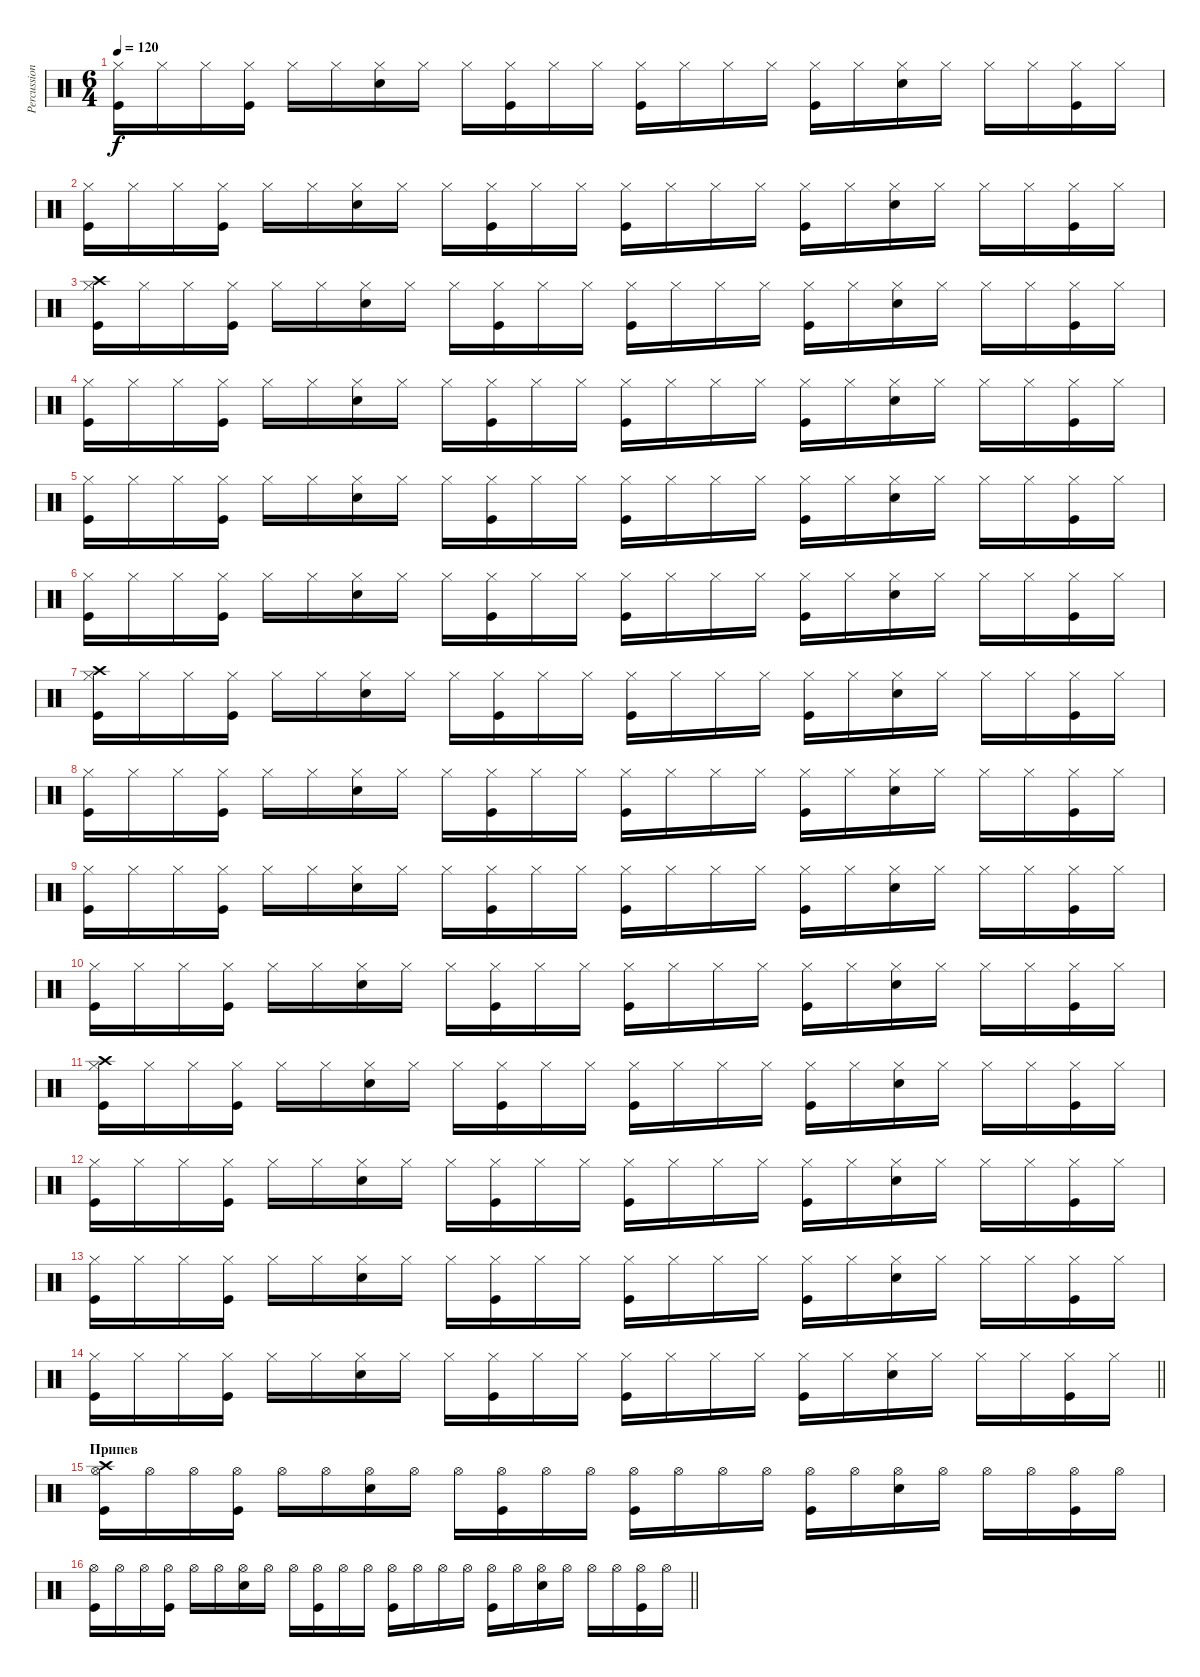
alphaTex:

\track ("Percussion" "Percussion") {instrument percussion}
\staff {score}
\articulation defaults
\ts (6 4)
\tempo 120
\clef neutral
\ks c
("Hi-Hat (closed)" "Kick (hit)").16{dy f} "Hi-Hat (closed)".16 "Hi-Hat (closed)".16 ("Hi-Hat (closed)" "Kick (hit)").16 "Hi-Hat (closed)".16 "Hi-Hat (closed)".16 ("Hi-Hat (closed)" "Snare (hit) 2").16 "Hi-Hat (closed)".16 "Hi-Hat (closed)".16 ("Hi-Hat (closed)" "Kick (hit)").16 "Hi-Hat (closed)".16 "Hi-Hat (closed)".16 ("Hi-Hat (closed)" "Kick (hit)").16 "Hi-Hat (closed)".16 "Hi-Hat (closed)".16 "Hi-Hat (closed)".16 ("Hi-Hat (closed)" "Kick (hit)").16 "Hi-Hat (closed)".16 ("Hi-Hat (closed)" "Snare (hit) 2").16 "Hi-Hat (closed)".16 "Hi-Hat (closed)".16 "Hi-Hat (closed)".16 ("Hi-Hat (closed)" "Kick (hit)").16 "Hi-Hat (closed)".16 |
("Hi-Hat (closed)" "Kick (hit)").16 "Hi-Hat (closed)".16 "Hi-Hat (closed)".16 ("Hi-Hat (closed)" "Kick (hit)").16 "Hi-Hat (closed)".16 "Hi-Hat (closed)".16 ("Hi-Hat (closed)" "Snare (hit) 2").16 "Hi-Hat (closed)".16 "Hi-Hat (closed)".16 ("Hi-Hat (closed)" "Kick (hit)").16 "Hi-Hat (closed)".16 "Hi-Hat (closed)".16 ("Hi-Hat (closed)" "Kick (hit)").16 "Hi-Hat (closed)".16 "Hi-Hat (closed)".16 "Hi-Hat (closed)".16 ("Hi-Hat (closed)" "Kick (hit)").16 "Hi-Hat (closed)".16 ("Hi-Hat (closed)" "Snare (hit) 2").16 "Hi-Hat (closed)".16 "Hi-Hat (closed)".16 "Hi-Hat (closed)".16 ("Hi-Hat (closed)" "Kick (hit)").16 "Hi-Hat (closed)".16 |
("Hi-Hat (closed)" "Crash high (hit)" "Kick (hit)").16 "Hi-Hat (closed)".16 "Hi-Hat (closed)".16 ("Hi-Hat (closed)" "Kick (hit)").16 "Hi-Hat (closed)".16 "Hi-Hat (closed)".16 ("Hi-Hat (closed)" "Snare (hit) 2").16 "Hi-Hat (closed)".16 "Hi-Hat (closed)".16 ("Hi-Hat (closed)" "Kick (hit)").16 "Hi-Hat (closed)".16 "Hi-Hat (closed)".16 ("Hi-Hat (closed)" "Kick (hit)").16 "Hi-Hat (closed)".16 "Hi-Hat (closed)".16 "Hi-Hat (closed)".16 ("Hi-Hat (closed)" "Kick (hit)").16 "Hi-Hat (closed)".16 ("Hi-Hat (closed)" "Snare (hit) 2").16 "Hi-Hat (closed)".16 "Hi-Hat (closed)".16 "Hi-Hat (closed)".16 ("Hi-Hat (closed)" "Kick (hit)").16 "Hi-Hat (closed)".16 |
("Hi-Hat (closed)" "Kick (hit)").16 "Hi-Hat (closed)".16 "Hi-Hat (closed)".16 ("Hi-Hat (closed)" "Kick (hit)").16 "Hi-Hat (closed)".16 "Hi-Hat (closed)".16 ("Hi-Hat (closed)" "Snare (hit) 2").16 "Hi-Hat (closed)".16 "Hi-Hat (closed)".16 ("Hi-Hat (closed)" "Kick (hit)").16 "Hi-Hat (closed)".16 "Hi-Hat (closed)".16 ("Hi-Hat (closed)" "Kick (hit)").16 "Hi-Hat (closed)".16 "Hi-Hat (closed)".16 "Hi-Hat (closed)".16 ("Hi-Hat (closed)" "Kick (hit)").16 "Hi-Hat (closed)".16 ("Hi-Hat (closed)" "Snare (hit) 2").16 "Hi-Hat (closed)".16 "Hi-Hat (closed)".16 "Hi-Hat (closed)".16 ("Hi-Hat (closed)" "Kick (hit)").16 "Hi-Hat (closed)".16 |
("Hi-Hat (closed)" "Kick (hit)").16 "Hi-Hat (closed)".16 "Hi-Hat (closed)".16 ("Hi-Hat (closed)" "Kick (hit)").16 "Hi-Hat (closed)".16 "Hi-Hat (closed)".16 ("Hi-Hat (closed)" "Snare (hit) 2").16 "Hi-Hat (closed)".16 "Hi-Hat (closed)".16 ("Hi-Hat (closed)" "Kick (hit)").16 "Hi-Hat (closed)".16 "Hi-Hat (closed)".16 ("Hi-Hat (closed)" "Kick (hit)").16 "Hi-Hat (closed)".16 "Hi-Hat (closed)".16 "Hi-Hat (closed)".16 ("Hi-Hat (closed)" "Kick (hit)").16 "Hi-Hat (closed)".16 ("Hi-Hat (closed)" "Snare (hit) 2").16 "Hi-Hat (closed)".16 "Hi-Hat (closed)".16 "Hi-Hat (closed)".16 ("Hi-Hat (closed)" "Kick (hit)").16 "Hi-Hat (closed)".16 |
("Hi-Hat (closed)" "Kick (hit)").16 "Hi-Hat (closed)".16 "Hi-Hat (closed)".16 ("Hi-Hat (closed)" "Kick (hit)").16 "Hi-Hat (closed)".16 "Hi-Hat (closed)".16 ("Hi-Hat (closed)" "Snare (hit) 2").16 "Hi-Hat (closed)".16 "Hi-Hat (closed)".16 ("Hi-Hat (closed)" "Kick (hit)").16 "Hi-Hat (closed)".16 "Hi-Hat (closed)".16 ("Hi-Hat (closed)" "Kick (hit)").16 "Hi-Hat (closed)".16 "Hi-Hat (closed)".16 "Hi-Hat (closed)".16 ("Hi-Hat (closed)" "Kick (hit)").16 "Hi-Hat (closed)".16 ("Hi-Hat (closed)" "Snare (hit) 2").16 "Hi-Hat (closed)".16 "Hi-Hat (closed)".16 "Hi-Hat (closed)".16 ("Hi-Hat (closed)" "Kick (hit)").16 "Hi-Hat (closed)".16 |
("Hi-Hat (closed)" "Crash high (hit)" "Kick (hit)").16 "Hi-Hat (closed)".16 "Hi-Hat (closed)".16 ("Hi-Hat (closed)" "Kick (hit)").16 "Hi-Hat (closed)".16 "Hi-Hat (closed)".16 ("Hi-Hat (closed)" "Snare (hit) 2").16 "Hi-Hat (closed)".16 "Hi-Hat (closed)".16 ("Hi-Hat (closed)" "Kick (hit)").16 "Hi-Hat (closed)".16 "Hi-Hat (closed)".16 ("Hi-Hat (closed)" "Kick (hit)").16 "Hi-Hat (closed)".16 "Hi-Hat (closed)".16 "Hi-Hat (closed)".16 ("Hi-Hat (closed)" "Kick (hit)").16 "Hi-Hat (closed)".16 ("Hi-Hat (closed)" "Snare (hit) 2").16 "Hi-Hat (closed)".16 "Hi-Hat (closed)".16 "Hi-Hat (closed)".16 ("Hi-Hat (closed)" "Kick (hit)").16 "Hi-Hat (closed)".16 |
("Hi-Hat (closed)" "Kick (hit)").16 "Hi-Hat (closed)".16 "Hi-Hat (closed)".16 ("Hi-Hat (closed)" "Kick (hit)").16 "Hi-Hat (closed)".16 "Hi-Hat (closed)".16 ("Hi-Hat (closed)" "Snare (hit) 2").16 "Hi-Hat (closed)".16 "Hi-Hat (closed)".16 ("Hi-Hat (closed)" "Kick (hit)").16 "Hi-Hat (closed)".16 "Hi-Hat (closed)".16 ("Hi-Hat (closed)" "Kick (hit)").16 "Hi-Hat (closed)".16 "Hi-Hat (closed)".16 "Hi-Hat (closed)".16 ("Hi-Hat (closed)" "Kick (hit)").16 "Hi-Hat (closed)".16 ("Hi-Hat (closed)" "Snare (hit) 2").16 "Hi-Hat (closed)".16 "Hi-Hat (closed)".16 "Hi-Hat (closed)".16 ("Hi-Hat (closed)" "Kick (hit)").16 "Hi-Hat (closed)".16 |
("Hi-Hat (closed)" "Kick (hit)").16 "Hi-Hat (closed)".16 "Hi-Hat (closed)".16 ("Hi-Hat (closed)" "Kick (hit)").16 "Hi-Hat (closed)".16 "Hi-Hat (closed)".16 ("Hi-Hat (closed)" "Snare (hit) 2").16 "Hi-Hat (closed)".16 "Hi-Hat (closed)".16 ("Hi-Hat (closed)" "Kick (hit)").16 "Hi-Hat (closed)".16 "Hi-Hat (closed)".16 ("Hi-Hat (closed)" "Kick (hit)").16 "Hi-Hat (closed)".16 "Hi-Hat (closed)".16 "Hi-Hat (closed)".16 ("Hi-Hat (closed)" "Kick (hit)").16 "Hi-Hat (closed)".16 ("Hi-Hat (closed)" "Snare (hit) 2").16 "Hi-Hat (closed)".16 "Hi-Hat (closed)".16 "Hi-Hat (closed)".16 ("Hi-Hat (closed)" "Kick (hit)").16 "Hi-Hat (closed)".16 |
("Hi-Hat (closed)" "Kick (hit)").16 "Hi-Hat (closed)".16 "Hi-Hat (closed)".16 ("Hi-Hat (closed)" "Kick (hit)").16 "Hi-Hat (closed)".16 "Hi-Hat (closed)".16 ("Hi-Hat (closed)" "Snare (hit) 2").16 "Hi-Hat (closed)".16 "Hi-Hat (closed)".16 ("Hi-Hat (closed)" "Kick (hit)").16 "Hi-Hat (closed)".16 "Hi-Hat (closed)".16 ("Hi-Hat (closed)" "Kick (hit)").16 "Hi-Hat (closed)".16 "Hi-Hat (closed)".16 "Hi-Hat (closed)".16 ("Hi-Hat (closed)" "Kick (hit)").16 "Hi-Hat (closed)".16 ("Hi-Hat (closed)" "Snare (hit) 2").16 "Hi-Hat (closed)".16 "Hi-Hat (closed)".16 "Hi-Hat (closed)".16 ("Hi-Hat (closed)" "Kick (hit)").16 "Hi-Hat (closed)".16 |
("Hi-Hat (closed)" "Crash high (hit)" "Kick (hit)").16 "Hi-Hat (closed)".16 "Hi-Hat (closed)".16 ("Hi-Hat (closed)" "Kick (hit)").16 "Hi-Hat (closed)".16 "Hi-Hat (closed)".16 ("Hi-Hat (closed)" "Snare (hit) 2").16 "Hi-Hat (closed)".16 "Hi-Hat (closed)".16 ("Hi-Hat (closed)" "Kick (hit)").16 "Hi-Hat (closed)".16 "Hi-Hat (closed)".16 ("Hi-Hat (closed)" "Kick (hit)").16 "Hi-Hat (closed)".16 "Hi-Hat (closed)".16 "Hi-Hat (closed)".16 ("Hi-Hat (closed)" "Kick (hit)").16 "Hi-Hat (closed)".16 ("Hi-Hat (closed)" "Snare (hit) 2").16 "Hi-Hat (closed)".16 "Hi-Hat (closed)".16 "Hi-Hat (closed)".16 ("Hi-Hat (closed)" "Kick (hit)").16 "Hi-Hat (closed)".16 |
("Hi-Hat (closed)" "Kick (hit)").16 "Hi-Hat (closed)".16 "Hi-Hat (closed)".16 ("Hi-Hat (closed)" "Kick (hit)").16 "Hi-Hat (closed)".16 "Hi-Hat (closed)".16 ("Hi-Hat (closed)" "Snare (hit) 2").16 "Hi-Hat (closed)".16 "Hi-Hat (closed)".16 ("Hi-Hat (closed)" "Kick (hit)").16 "Hi-Hat (closed)".16 "Hi-Hat (closed)".16 ("Hi-Hat (closed)" "Kick (hit)").16 "Hi-Hat (closed)".16 "Hi-Hat (closed)".16 "Hi-Hat (closed)".16 ("Hi-Hat (closed)" "Kick (hit)").16 "Hi-Hat (closed)".16 ("Hi-Hat (closed)" "Snare (hit) 2").16 "Hi-Hat (closed)".16 "Hi-Hat (closed)".16 "Hi-Hat (closed)".16 ("Hi-Hat (closed)" "Kick (hit)").16 "Hi-Hat (closed)".16 |
("Hi-Hat (closed)" "Kick (hit)").16 "Hi-Hat (closed)".16 "Hi-Hat (closed)".16 ("Hi-Hat (closed)" "Kick (hit)").16 "Hi-Hat (closed)".16 "Hi-Hat (closed)".16 ("Hi-Hat (closed)" "Snare (hit) 2").16 "Hi-Hat (closed)".16 "Hi-Hat (closed)".16 ("Hi-Hat (closed)" "Kick (hit)").16 "Hi-Hat (closed)".16 "Hi-Hat (closed)".16 ("Hi-Hat (closed)" "Kick (hit)").16 "Hi-Hat (closed)".16 "Hi-Hat (closed)".16 "Hi-Hat (closed)".16 ("Hi-Hat (closed)" "Kick (hit)").16 "Hi-Hat (closed)".16 ("Hi-Hat (closed)" "Snare (hit) 2").16 "Hi-Hat (closed)".16 "Hi-Hat (closed)".16 "Hi-Hat (closed)".16 ("Hi-Hat (closed)" "Kick (hit)").16 "Hi-Hat (closed)".16 |
\barLineRight lightlight
("Hi-Hat (closed)" "Kick (hit)").16 "Hi-Hat (closed)".16 "Hi-Hat (closed)".16 ("Hi-Hat (closed)" "Kick (hit)").16 "Hi-Hat (closed)".16 "Hi-Hat (closed)".16 ("Hi-Hat (closed)" "Snare (hit) 2").16 "Hi-Hat (closed)".16 "Hi-Hat (closed)".16 ("Hi-Hat (closed)" "Kick (hit)").16 "Hi-Hat (closed)".16 "Hi-Hat (closed)".16 ("Hi-Hat (closed)" "Kick (hit)").16 "Hi-Hat (closed)".16 "Hi-Hat (closed)".16 "Hi-Hat (closed)".16 ("Hi-Hat (closed)" "Kick (hit)").16 "Hi-Hat (closed)".16 ("Hi-Hat (closed)" "Snare (hit) 2").16 "Hi-Hat (closed)".16 "Hi-Hat (closed)".16 "Hi-Hat (closed)".16 ("Hi-Hat (closed)" "Kick (hit)").16 "Hi-Hat (closed)".16 |
\section ("" "Припев")
("Hi-Hat (open)" "Crash high (hit)" "Kick (hit)").16 "Hi-Hat (open)".16 "Hi-Hat (open)".16 ("Hi-Hat (open)" "Kick (hit)").16 "Hi-Hat (open)".16 "Hi-Hat (open)".16 ("Hi-Hat (open)" "Snare (hit) 2").16 "Hi-Hat (open)".16 "Hi-Hat (open)".16 ("Hi-Hat (open)" "Kick (hit)").16 "Hi-Hat (open)".16 "Hi-Hat (open)".16 ("Hi-Hat (open)" "Kick (hit)").16 "Hi-Hat (open)".16 "Hi-Hat (open)".16 "Hi-Hat (open)".16 ("Hi-Hat (open)" "Kick (hit)").16 "Hi-Hat (open)".16 ("Hi-Hat (open)" "Snare (hit) 2").16 "Hi-Hat (open)".16 "Hi-Hat (open)".16 "Hi-Hat (open)".16 ("Hi-Hat (open)" "Kick (hit)").16 "Hi-Hat (open)".16 |
\barLineRight lightlight
("Hi-Hat (open)" "Kick (hit)").16 "Hi-Hat (open)".16 "Hi-Hat (open)".16 ("Hi-Hat (open)" "Kick (hit)").16 "Hi-Hat (open)".16 "Hi-Hat (open)".16 ("Hi-Hat (open)" "Snare (hit) 2").16 "Hi-Hat (open)".16 "Hi-Hat (open)".16 ("Hi-Hat (open)" "Kick (hit)").16 "Hi-Hat (open)".16 "Hi-Hat (open)".16 ("Hi-Hat (open)" "Kick (hit)").16 "Hi-Hat (open)".16 "Hi-Hat (open)".16 "Hi-Hat (open)".16 ("Hi-Hat (open)" "Kick (hit)").16 "Hi-Hat (open)".16 ("Hi-Hat (open)" "Snare (hit) 2").16 "Hi-Hat (open)".16 "Hi-Hat (open)".16 "Hi-Hat (open)".16 ("Hi-Hat (open)" "Kick (hit)").16 "Hi-Hat (open)".16
